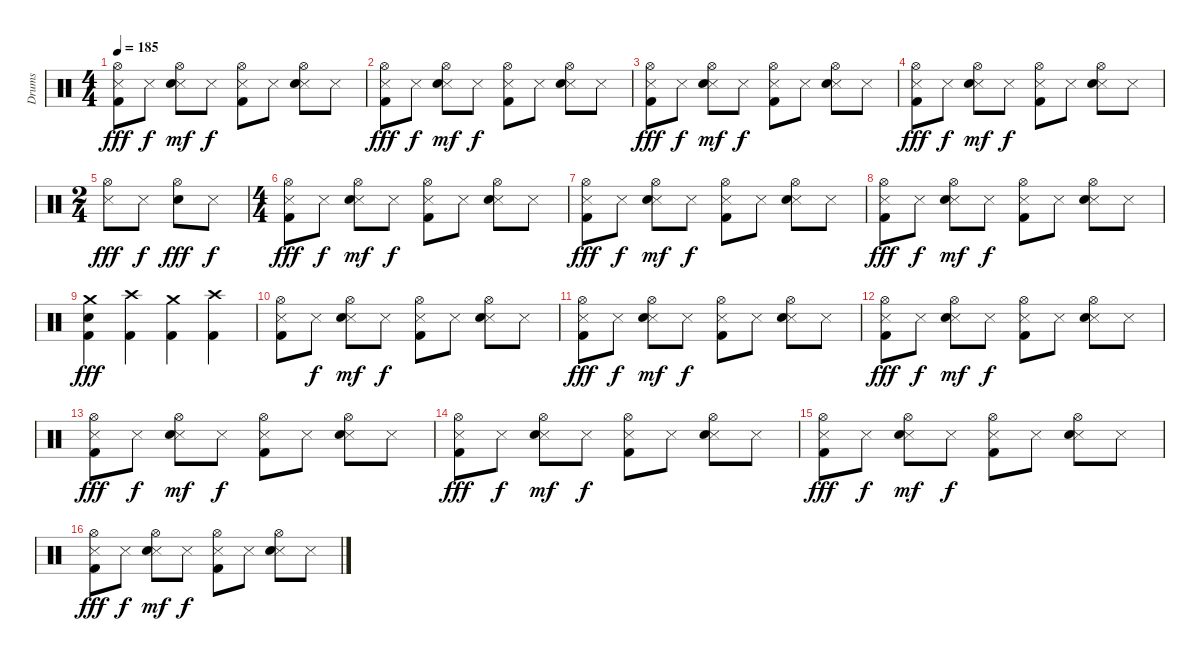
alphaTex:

\track ("Drums" "Drums") {instrument percussion}
\staff {score}
\articulation defaults
\ts (4 4)
\tempo 185
\clef neutral
\ks c
("Hi-Hat (open)" "Metronome (hit)" "Kick (hit) 2").8{dy fff} "Metronome (hit)".8{dy f} ("Hi-Hat (open)" "Metronome (hit)" "Snare (hit) 2").8{dy mf} "Metronome (hit)".8{dy f} ("Hi-Hat (open)" "Metronome (hit)" "Kick (hit) 2").8 "Metronome (hit)".8 ("Hi-Hat (open)" "Metronome (hit)" "Snare (hit) 2").8 "Metronome (hit)".8 |
("Hi-Hat (open)" "Metronome (hit)" "Kick (hit) 2").8{dy fff} "Metronome (hit)".8{dy f} ("Hi-Hat (open)" "Metronome (hit)" "Snare (hit) 2").8{dy mf} "Metronome (hit)".8{dy f} ("Hi-Hat (open)" "Metronome (hit)" "Kick (hit) 2").8 "Metronome (hit)".8 ("Hi-Hat (open)" "Metronome (hit)" "Snare (hit) 2").8 "Metronome (hit)".8 |
("Hi-Hat (open)" "Metronome (hit)" "Kick (hit) 2").8{dy fff} "Metronome (hit)".8{dy f} ("Hi-Hat (open)" "Metronome (hit)" "Snare (hit) 2").8{dy mf} "Metronome (hit)".8{dy f} ("Hi-Hat (open)" "Metronome (hit)" "Kick (hit) 2").8 "Metronome (hit)".8 ("Hi-Hat (open)" "Metronome (hit)" "Snare (hit) 2").8 "Metronome (hit)".8 |
("Hi-Hat (open)" "Metronome (hit)" "Kick (hit) 2").8{dy fff} "Metronome (hit)".8{dy f} ("Hi-Hat (open)" "Metronome (hit)" "Snare (hit) 2").8{dy mf} "Metronome (hit)".8{dy f} ("Hi-Hat (open)" "Metronome (hit)" "Kick (hit) 2").8 "Metronome (hit)".8 ("Hi-Hat (open)" "Metronome (hit)" "Snare (hit) 2").8 "Metronome (hit)".8 |
\ts (2 4)
("Hi-Hat (open)" "Metronome (hit)").8{dy fff} "Metronome (hit)".8{dy f} ("Hi-Hat (open)" "Snare (hit) 2").8{dy fff} "Metronome (hit)".8{dy f} |
\ts (4 4)
("Hi-Hat (open)" "Metronome (hit)" "Kick (hit) 2").8{dy fff} "Metronome (hit)".8{dy f} ("Hi-Hat (open)" "Metronome (hit)" "Snare (hit) 2").8{dy mf} "Metronome (hit)".8{dy f} ("Hi-Hat (open)" "Metronome (hit)" "Kick (hit) 2").8 "Metronome (hit)".8 ("Hi-Hat (open)" "Metronome (hit)" "Snare (hit) 2").8 "Metronome (hit)".8 |
("Hi-Hat (open)" "Metronome (hit)" "Kick (hit) 2").8{dy fff} "Metronome (hit)".8{dy f} ("Hi-Hat (open)" "Metronome (hit)" "Snare (hit) 2").8{dy mf} "Metronome (hit)".8{dy f} ("Hi-Hat (open)" "Metronome (hit)" "Kick (hit) 2").8 "Metronome (hit)".8 ("Hi-Hat (open)" "Metronome (hit)" "Snare (hit) 2").8 "Metronome (hit)".8 |
("Hi-Hat (open)" "Metronome (hit)" "Kick (hit) 2").8{dy fff} "Metronome (hit)".8{dy f} ("Hi-Hat (open)" "Metronome (hit)" "Snare (hit) 2").8{dy mf} "Metronome (hit)".8{dy f} ("Hi-Hat (open)" "Metronome (hit)" "Kick (hit) 2").8 "Metronome (hit)".8 ("Hi-Hat (open)" "Metronome (hit)" "Snare (hit) 2").8 "Metronome (hit)".8 |
("Crash medium (hit)" "Snare (hit) 2" "Kick (hit) 2").4{dy fff} ("Crash high (hit)" "Kick (hit) 2").4 ("Crash medium (hit)" "Kick (hit) 2").4 ("Crash high (hit)" "Kick (hit) 2").4 |
("Hi-Hat (open)" "Metronome (hit)" "Kick (hit) 2").8 "Metronome (hit)".8{dy f} ("Hi-Hat (open)" "Metronome (hit)" "Snare (hit) 2").8{dy mf} "Metronome (hit)".8{dy f} ("Hi-Hat (open)" "Metronome (hit)" "Kick (hit) 2").8 "Metronome (hit)".8 ("Hi-Hat (open)" "Metronome (hit)" "Snare (hit) 2").8 "Metronome (hit)".8 |
("Hi-Hat (open)" "Metronome (hit)" "Kick (hit) 2").8{dy fff} "Metronome (hit)".8{dy f} ("Hi-Hat (open)" "Metronome (hit)" "Snare (hit) 2").8{dy mf} "Metronome (hit)".8{dy f} ("Hi-Hat (open)" "Metronome (hit)" "Kick (hit) 2").8 "Metronome (hit)".8 ("Hi-Hat (open)" "Metronome (hit)" "Snare (hit) 2").8 "Metronome (hit)".8 |
("Hi-Hat (open)" "Metronome (hit)" "Kick (hit) 2").8{dy fff} "Metronome (hit)".8{dy f} ("Hi-Hat (open)" "Metronome (hit)" "Snare (hit) 2").8{dy mf} "Metronome (hit)".8{dy f} ("Hi-Hat (open)" "Metronome (hit)" "Kick (hit) 2").8 "Metronome (hit)".8 ("Hi-Hat (open)" "Metronome (hit)" "Snare (hit) 2").8 "Metronome (hit)".8 |
("Hi-Hat (open)" "Metronome (hit)" "Kick (hit) 2").8{dy fff} "Metronome (hit)".8{dy f} ("Hi-Hat (open)" "Metronome (hit)" "Snare (hit) 2").8{dy mf} "Metronome (hit)".8{dy f} ("Hi-Hat (open)" "Metronome (hit)" "Kick (hit) 2").8 "Metronome (hit)".8 ("Hi-Hat (open)" "Metronome (hit)" "Snare (hit) 2").8 "Metronome (hit)".8 |
("Hi-Hat (open)" "Metronome (hit)" "Kick (hit) 2").8{dy fff} "Metronome (hit)".8{dy f} ("Hi-Hat (open)" "Metronome (hit)" "Snare (hit) 2").8{dy mf} "Metronome (hit)".8{dy f} ("Hi-Hat (open)" "Metronome (hit)" "Kick (hit) 2").8 "Metronome (hit)".8 ("Hi-Hat (open)" "Metronome (hit)" "Snare (hit) 2").8 "Metronome (hit)".8 |
("Hi-Hat (open)" "Metronome (hit)" "Kick (hit) 2").8{dy fff} "Metronome (hit)".8{dy f} ("Hi-Hat (open)" "Metronome (hit)" "Snare (hit) 2").8{dy mf} "Metronome (hit)".8{dy f} ("Hi-Hat (open)" "Metronome (hit)" "Kick (hit) 2").8 "Metronome (hit)".8 ("Hi-Hat (open)" "Metronome (hit)" "Snare (hit) 2").8 "Metronome (hit)".8 |
("Hi-Hat (open)" "Metronome (hit)" "Kick (hit) 2").8{dy fff} "Metronome (hit)".8{dy f} ("Hi-Hat (open)" "Metronome (hit)" "Snare (hit) 2").8{dy mf} "Metronome (hit)".8{dy f} ("Hi-Hat (open)" "Metronome (hit)" "Kick (hit) 2").8 "Metronome (hit)".8 ("Hi-Hat (open)" "Metronome (hit)" "Snare (hit) 2").8 "Metronome (hit)".8
